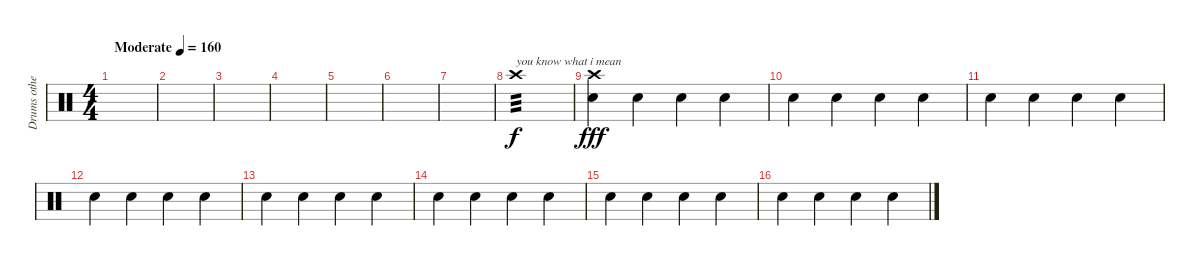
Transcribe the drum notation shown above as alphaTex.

\track ("Drums others" "Drums othe") {instrument percussion}
\staff {score}
\articulation defaults
\ts (4 4)
\tempo (160 "Moderate")
\clef neutral
\ks c
|
|
|
|
|
|
|
"Crash high (hit)".1{txt "you know what i mean" tp 3 volume 16} |
("Crash high (hit)" "Snare (hit) 2").4{dy fff} "Snare (hit) 2".4 "Snare (hit) 2".4 "Snare (hit) 2".4 |
"Snare (hit) 2".4 "Snare (hit) 2".4 "Snare (hit) 2".4 "Snare (hit) 2".4 |
"Snare (hit) 2".4 "Snare (hit) 2".4 "Snare (hit) 2".4 "Snare (hit) 2".4 |
"Snare (hit) 2".4 "Snare (hit) 2".4 "Snare (hit) 2".4 "Snare (hit) 2".4 |
"Snare (hit) 2".4 "Snare (hit) 2".4 "Snare (hit) 2".4 "Snare (hit) 2".4 |
"Snare (hit) 2".4 "Snare (hit) 2".4 "Snare (hit) 2".4 "Snare (hit) 2".4 |
"Snare (hit) 2".4 "Snare (hit) 2".4 "Snare (hit) 2".4 "Snare (hit) 2".4 |
"Snare (hit) 2".4 "Snare (hit) 2".4 "Snare (hit) 2".4 "Snare (hit) 2".4
